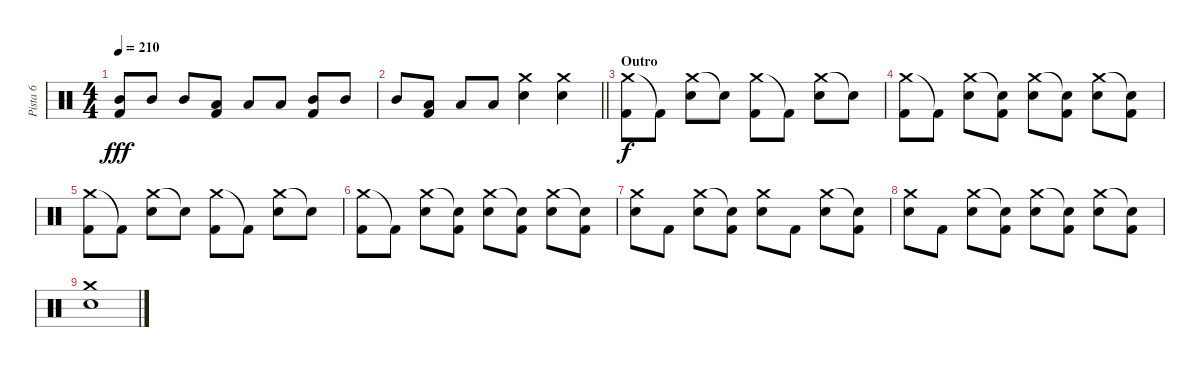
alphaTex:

\track ("Pista 6" "Pista 6") {instrument percussion}
\staff {score}
\articulation defaults
\ts (4 4)
\tempo 210
\clef neutral
\ks c
("Mid Tom (hit)" "Kick (hit) 2").8{dy fff} "Mid Tom (hit)".8 "Mid Tom (hit)".8 ("Low Tom (hit)" "Kick (hit) 2").8 "Low Tom (hit)".8 "Low Tom (hit)".8 ("Mid Tom (hit)" "Kick (hit) 2").8 "Mid Tom (hit)".8 |
\barLineRight lightlight "Mid Tom (hit)".8
("Low Tom (hit)" "Kick (hit) 2").8 "Low Tom (hit)".8 "Low Tom (hit)".8 ("Crash medium (hit)" "Electric Snare (hit)").4 ("Crash medium (hit)" "Electric Snare (hit)").4 |
\section ("" "Outro")
("Crash medium (hit)" "Kick (hit) 2").8{dy f} "Kick (hit) 2"{t}.8 ("Crash medium (hit)" "Electric Snare (hit)").8 "Electric Snare (hit)"{t}.8 ("Crash medium (hit)" "Kick (hit) 2").8 "Kick (hit) 2"{t}.8 ("Crash medium (hit)" "Electric Snare (hit)").8 "Electric Snare (hit)"{t}.8 |
("Crash medium (hit)" "Kick (hit) 2").8 "Kick (hit) 2"{t}.8 ("Crash medium (hit)" "Electric Snare (hit)").8 ("Electric Snare (hit)"{t} "Kick (hit) 2").8 ("Crash medium (hit)" "Electric Snare (hit)").8 ("Electric Snare (hit)"{t} "Kick (hit) 2").8 ("Crash medium (hit)" "Electric Snare (hit)").8 ("Electric Snare (hit)"{t} "Kick (hit) 2").8 |
("Crash medium (hit)" "Kick (hit) 2").8 "Kick (hit) 2"{t}.8 ("Crash medium (hit)" "Electric Snare (hit)").8 "Electric Snare (hit)"{t}.8 ("Crash medium (hit)" "Kick (hit) 2").8 "Kick (hit) 2"{t}.8 ("Crash medium (hit)" "Electric Snare (hit)").8 "Electric Snare (hit)"{t}.8 |
("Crash medium (hit)" "Kick (hit) 2").8 "Kick (hit) 2"{t}.8 ("Crash medium (hit)" "Electric Snare (hit)").8 ("Electric Snare (hit)"{t} "Kick (hit) 2").8 ("Crash medium (hit)" "Electric Snare (hit)").8 ("Electric Snare (hit)"{t} "Kick (hit) 2").8 ("Crash medium (hit)" "Electric Snare (hit)").8 ("Electric Snare (hit)"{t} "Kick (hit) 2").8 |
("Crash medium (hit)" "Electric Snare (hit)").8 "Kick (hit) 2".8 ("Crash medium (hit)" "Electric Snare (hit)").8 ("Electric Snare (hit)"{t} "Kick (hit) 2").8 ("Crash medium (hit)" "Electric Snare (hit)").8 "Kick (hit) 2".8 ("Crash medium (hit)" "Electric Snare (hit)").8 ("Electric Snare (hit)"{t} "Kick (hit) 2").8 |
("Crash medium (hit)" "Electric Snare (hit)").8 "Kick (hit) 2".8 ("Crash medium (hit)" "Electric Snare (hit)").8 ("Electric Snare (hit)"{t} "Kick (hit) 2").8 ("Crash medium (hit)" "Electric Snare (hit)").8 ("Electric Snare (hit)"{t} "Kick (hit) 2").8 ("Crash medium (hit)" "Electric Snare (hit)").8 ("Electric Snare (hit)"{t} "Kick (hit) 2").8 |
("Crash medium (hit)" "Electric Snare (hit)").1
